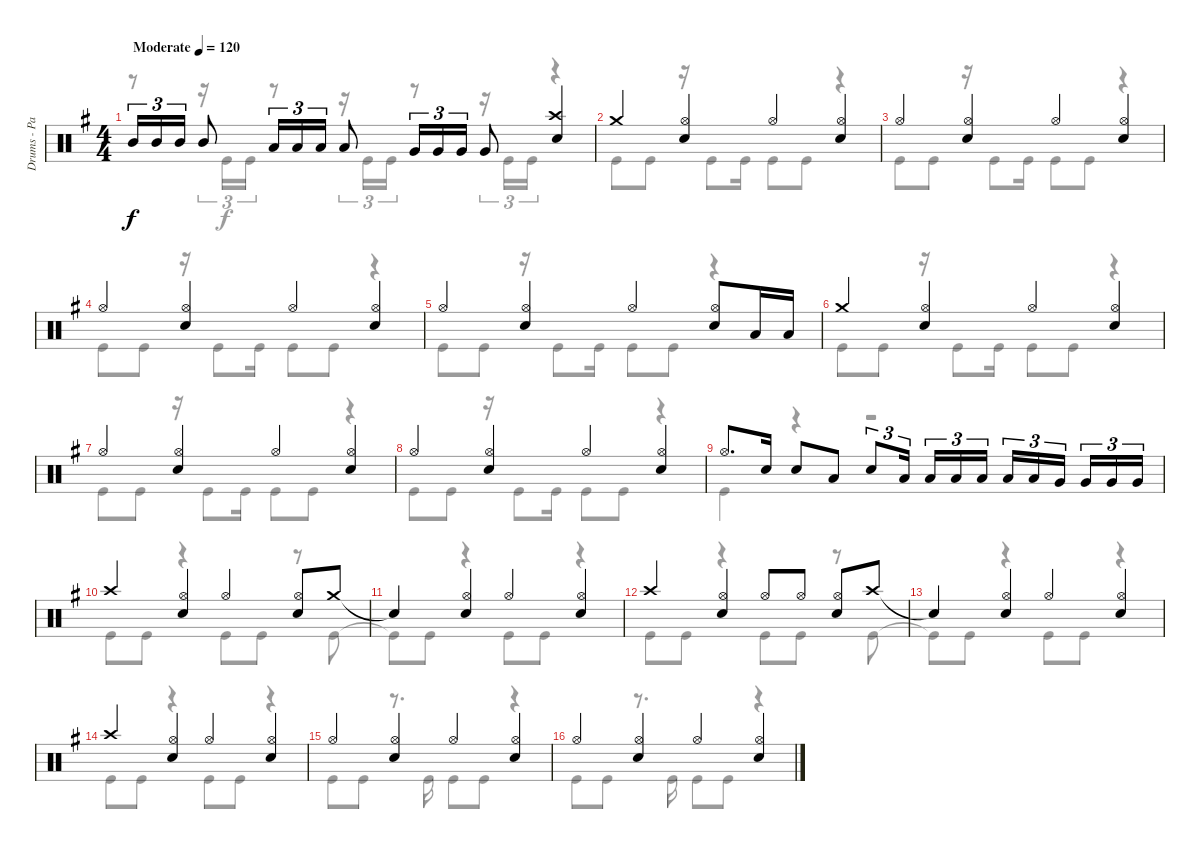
\track ("Drums - Patrick Johansson" "Drums - Pa") {instrument percussion}
\staff {score}
\articulation defaults
\voice
\ts (4 4)
\tempo (120 "Moderate")
\clef neutral
\ks eminor "Mid Tom (hit)".16{tu (3 2) dy f} "Mid Tom (hit)".16{tu (3 2)} "Mid Tom (hit)".16{tu (3 2)} "Mid Tom (hit)".8 "Low Tom (hit)".16{tu (3 2)} "Low Tom (hit)".16{tu (3 2)} "Low Tom (hit)".16{tu (3 2)} "Low Tom (hit)".8 "Very Low Tom (hit)".16{tu (3 2)} "Very Low Tom (hit)".16{tu (3 2)} "Very Low Tom (hit)".16{tu (3 2)} "Very Low Tom (hit)".8
("Crash high (hit)" "Snare (hit) 2").4 |
"Crash medium (hit)".4 ("Hi-Hat (open)" "Snare (hit) 2").4 "Hi-Hat (open)".4 ("Hi-Hat (open)" "Snare (hit) 2").4 |
"Hi-Hat (open)".4 ("Hi-Hat (open)" "Snare (hit) 2").4 "Hi-Hat (open)".4 ("Hi-Hat (open)" "Snare (hit) 2").4 |
"Hi-Hat (open)".4 ("Hi-Hat (open)" "Snare (hit) 2").4 "Hi-Hat (open)".4 ("Hi-Hat (open)" "Snare (hit) 2").4 |
"Hi-Hat (open)".4 ("Hi-Hat (open)" "Snare (hit) 2").4 "Hi-Hat (open)".4 ("Hi-Hat (open)" "Snare (hit) 2").8 "Low Tom (hit)".16 "Low Tom (hit)".16 |
"Crash medium (hit)".4 ("Hi-Hat (open)" "Snare (hit) 2").4 "Hi-Hat (open)".4 ("Hi-Hat (open)" "Snare (hit) 2").4 |
"Hi-Hat (open)".4 ("Hi-Hat (open)" "Snare (hit) 2").4 "Hi-Hat (open)".4 ("Hi-Hat (open)" "Snare (hit) 2").4 |
"Hi-Hat (open)".4 ("Hi-Hat (open)" "Snare (hit) 2").4 "Hi-Hat (open)".4 ("Hi-Hat (open)" "Snare (hit) 2").4 |
"Hi-Hat (open)".8{d} "Snare (hit) 2".16 "Snare (hit) 2".8 "Low Tom (hit)".8 "Snare (hit) 2".8{tu (3 2)} "Low Tom (hit)".16{tu (3 2) beam splitsecondary} "Low Tom (hit)".16{tu (3 2)} "Low Tom (hit)".16{tu (3 2)} "Low Tom (hit)".16{tu (3 2)} "Low Tom (hit)".16{tu (3 2)} "Low Tom (hit)".16{tu (3 2)} "Very Low Tom (hit)".16{tu (3 2) beam splitsecondary} "Very Low Tom (hit)".16{tu (3 2)} "Very Low Tom (hit)".16{tu (3 2)} "Very Low Tom (hit)".16{tu (3 2)} |
"Crash high (hit)".4 ("Hi-Hat (open)" "Snare (hit) 2").4 "Hi-Hat (open)".4 ("Hi-Hat (open)" "Snare (hit) 2").8 "Crash medium (hit)".8 |
"Snare (hit)"{t}.4 ("Hi-Hat (open)" "Snare (hit) 2").4 "Hi-Hat (open)".4 ("Hi-Hat (open)" "Snare (hit) 2").4 |
"Crash high (hit)".4 ("Hi-Hat (open)" "Snare (hit) 2").4 "Hi-Hat (open)".8 "Hi-Hat (open)".8 ("Hi-Hat (open)" "Snare (hit) 2").8 "Crash high (hit)".8 |
"Snare (hit)"{t}.4 ("Hi-Hat (open)" "Snare (hit) 2").4 "Hi-Hat (open)".4 ("Hi-Hat (open)" "Snare (hit) 2").4 |
"Crash high (hit)".4 ("Hi-Hat (open)" "Snare (hit) 2").4 "Hi-Hat (open)".4 ("Hi-Hat (open)" "Snare (hit) 2").4 |
"Hi-Hat (open)".4 ("Hi-Hat (open)" "Snare (hit) 2").4 "Hi-Hat (open)".4 ("Hi-Hat (open)" "Snare (hit) 2").4 |
"Hi-Hat (open)".4 ("Hi-Hat (open)" "Snare (hit) 2").4 "Hi-Hat (open)".4 ("Hi-Hat (open)" "Snare (hit) 2").4
\voice
\clef neutral
\ottava regular
\simile none
\ks eminor
r.8{dy f} r.16{tu (3 2)} "Kick (hit)".16{tu (3 2)} "Kick (hit)".16{tu (3 2)} r.8 r.16{tu (3 2)} "Kick (hit)".16{tu (3 2)} "Kick (hit)".16{tu (3 2)} r.8 r.16{tu (3 2)} "Kick (hit)".16{tu (3 2)} "Kick (hit)".16{tu (3 2)} r.4 |
"Kick (hit)".8 "Kick (hit)".8 r.16 "Kick (hit)".8 "Kick (hit)".16 "Kick (hit)".8 "Kick (hit)".8 r.4 |
"Kick (hit)".8 "Kick (hit)".8 r.16 "Kick (hit)".8 "Kick (hit)".16 "Kick (hit)".8 "Kick (hit)".8 r.4 |
"Kick (hit)".8 "Kick (hit)".8 r.16 "Kick (hit)".8 "Kick (hit)".16 "Kick (hit)".8 "Kick (hit)".8 r.4 |
"Kick (hit)".8 "Kick (hit)".8 r.16 "Kick (hit)".8 "Kick (hit)".16 "Kick (hit)".8 "Kick (hit)".8 r.4 |
"Kick (hit)".8 "Kick (hit)".8 r.16 "Kick (hit)".8 "Kick (hit)".16 "Kick (hit)".8 "Kick (hit)".8 r.4 |
"Kick (hit)".8 "Kick (hit)".8 r.16 "Kick (hit)".8 "Kick (hit)".16 "Kick (hit)".8 "Kick (hit)".8 r.4 |
"Kick (hit)".8 "Kick (hit)".8 r.16 "Kick (hit)".8 "Kick (hit)".16 "Kick (hit)".8 "Kick (hit)".8 r.4 |
"Kick (hit)".4 r.4 r.2 |
"Kick (hit)".8 "Kick (hit)".8 r.4 "Kick (hit)".8 "Kick (hit)".8 r.8 "Kick (hit)".8 |
"Kick (hit)"{t}.8 "Kick (hit)".8 r.4 "Kick (hit)".8 "Kick (hit)".8 r.4 |
"Kick (hit)".8 "Kick (hit)".8 r.4 "Kick (hit)".8 "Kick (hit)".8 r.8 "Kick (hit)".8 |
"Kick (hit)"{t}.8 "Kick (hit)".8 r.4 "Kick (hit)".8 "Kick (hit)".8 r.4 |
"Kick (hit)".8 "Kick (hit)".8 r.4 "Kick (hit)".8 "Kick (hit)".8 r.4 |
"Kick (hit)".8 "Kick (hit)".8 r.8{d} "Kick (hit)".16 "Kick (hit)".8 "Kick (hit)".8 r.4 |
"Kick (hit)".8 "Kick (hit)".8 r.8{d} "Kick (hit)".16 "Kick (hit)".8 "Kick (hit)".8 r.4
